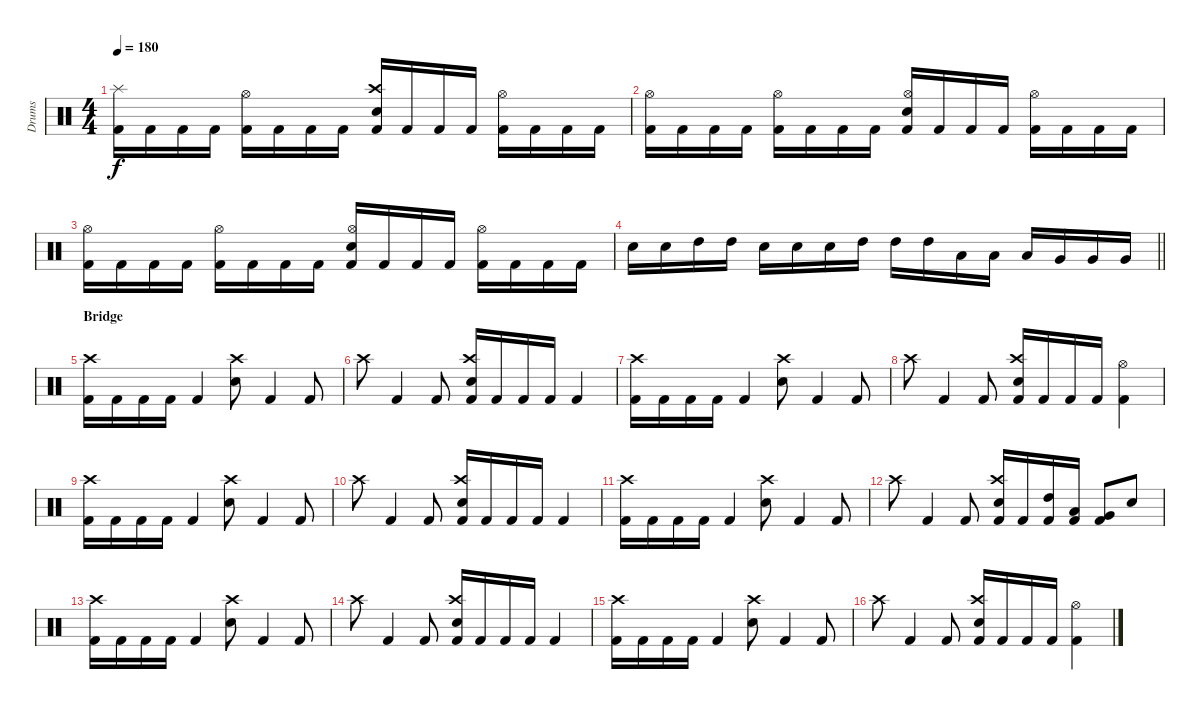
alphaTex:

\track ("Drums" "Drums") {instrument percussion}
\staff {score}
\articulation defaults
\ts (4 4)
\tempo 180
\clef neutral
\ks c
("Splash (hit)" "Kick (hit) 2").16{dy f} "Kick (hit) 2".16 "Kick (hit) 2".16 "Kick (hit) 2".16 ("Hi-Hat (open)" "Kick (hit) 2").16 "Kick (hit) 2".16 "Kick (hit) 2".16 "Kick (hit) 2".16 ("Crash high (hit)" "Snare (hit) 2" "Kick (hit) 2").16 "Kick (hit) 2".16 "Kick (hit) 2".16 "Kick (hit) 2".16 ("Hi-Hat (open)" "Kick (hit) 2").16 "Kick (hit) 2".16 "Kick (hit) 2".16 "Kick (hit) 2".16 |
("Hi-Hat (open)" "Kick (hit) 2").16 "Kick (hit) 2".16 "Kick (hit) 2".16 "Kick (hit) 2".16 ("Hi-Hat (open)" "Kick (hit) 2").16 "Kick (hit) 2".16 "Kick (hit) 2".16 "Kick (hit) 2".16 ("Hi-Hat (open)" "Snare (hit) 2" "Kick (hit) 2").16 "Kick (hit) 2".16 "Kick (hit) 2".16 "Kick (hit) 2".16 ("Hi-Hat (open)" "Kick (hit) 2").16 "Kick (hit) 2".16 "Kick (hit) 2".16 "Kick (hit) 2".16 |
("Hi-Hat (open)" "Kick (hit) 2").16 "Kick (hit) 2".16 "Kick (hit) 2".16 "Kick (hit) 2".16 ("Hi-Hat (open)" "Kick (hit) 2").16 "Kick (hit) 2".16 "Kick (hit) 2".16 "Kick (hit) 2".16 ("Hi-Hat (open)" "Snare (hit) 2" "Kick (hit) 2").16 "Kick (hit) 2".16 "Kick (hit) 2".16 "Kick (hit) 2".16 ("Hi-Hat (open)" "Kick (hit) 2").16 "Kick (hit) 2".16 "Kick (hit) 2".16 "Kick (hit) 2".16 |
\barLineRight lightlight "Snare (hit) 2".16 "Snare (hit) 2".16 "High Tom (hit)".16 "High Tom (hit)".16 "Snare (hit) 2".16 "Snare (hit) 2".16 "Snare (hit) 2".16 "High Tom (hit)".16 "High Tom (hit)".16 "High Tom (hit)".16 "Low Tom (hit)".16 "Low Tom (hit)".16 "Low Tom (hit)".16 "Very Low Tom (hit)".16 "Very Low Tom (hit)".16 "Very Low Tom (hit)".16
|
\section ("" "Bridge")
("Crash high (hit)" "Kick (hit) 2").16 "Kick (hit) 2".16 "Kick (hit) 2".16 "Kick (hit) 2".16 "Kick (hit) 2".4 ("Crash high (hit)" "Snare (hit) 2").8 "Kick (hit) 2".4 "Kick (hit) 2".8 |
"Crash high (hit)".8 "Kick (hit) 2".4 "Kick (hit) 2".8 ("Crash high (hit)" "Snare (hit) 2" "Kick (hit) 2").16 "Kick (hit) 2".16 "Kick (hit) 2".16 "Kick (hit) 2".16 "Kick (hit) 2".4 |
("Crash high (hit)" "Kick (hit) 2").16 "Kick (hit) 2".16 "Kick (hit) 2".16 "Kick (hit) 2".16 "Kick (hit) 2".4 ("Crash high (hit)" "Snare (hit) 2").8 "Kick (hit) 2".4 "Kick (hit) 2".8 |
"Crash high (hit)".8 "Kick (hit) 2".4 "Kick (hit) 2".8 ("Crash high (hit)" "Snare (hit) 2" "Kick (hit) 2").16 "Kick (hit) 2".16 "Kick (hit) 2".16 "Kick (hit) 2".16 ("Hi-Hat (open)" "Kick (hit) 2").4 |
("Crash high (hit)" "Kick (hit) 2").16 "Kick (hit) 2".16 "Kick (hit) 2".16 "Kick (hit) 2".16 "Kick (hit) 2".4 ("Crash high (hit)" "Snare (hit) 2").8 "Kick (hit) 2".4 "Kick (hit) 2".8 |
"Crash high (hit)".8 "Kick (hit) 2".4 "Kick (hit) 2".8 ("Crash high (hit)" "Snare (hit) 2" "Kick (hit) 2").16 "Kick (hit) 2".16 "Kick (hit) 2".16 "Kick (hit) 2".16 "Kick (hit) 2".4 |
("Crash high (hit)" "Kick (hit) 2").16 "Kick (hit) 2".16 "Kick (hit) 2".16 "Kick (hit) 2".16 "Kick (hit) 2".4 ("Crash high (hit)" "Snare (hit) 2").8 "Kick (hit) 2".4 "Kick (hit) 2".8 |
"Crash high (hit)".8 "Kick (hit) 2".4 "Kick (hit) 2".8 ("Crash high (hit)" "Snare (hit) 2" "Kick (hit) 2").16 "Kick (hit) 2".16 ("High Tom (hit)" "Kick (hit) 2").16 ("Low Tom (hit)" "Kick (hit) 2").16 ("Very Low Tom (hit)" "Kick (hit) 2").8 "Snare (hit) 2".8 |
("Crash high (hit)" "Kick (hit) 2").16 "Kick (hit) 2".16 "Kick (hit) 2".16 "Kick (hit) 2".16 "Kick (hit) 2".4 ("Crash high (hit)" "Snare (hit) 2").8 "Kick (hit) 2".4 "Kick (hit) 2".8 |
"Crash high (hit)".8 "Kick (hit) 2".4 "Kick (hit) 2".8 ("Crash high (hit)" "Snare (hit) 2" "Kick (hit) 2").16 "Kick (hit) 2".16 "Kick (hit) 2".16 "Kick (hit) 2".16 "Kick (hit) 2".4 |
("Crash high (hit)" "Kick (hit) 2").16 "Kick (hit) 2".16 "Kick (hit) 2".16 "Kick (hit) 2".16 "Kick (hit) 2".4 ("Crash high (hit)" "Snare (hit) 2").8 "Kick (hit) 2".4 "Kick (hit) 2".8 |
"Crash high (hit)".8 "Kick (hit) 2".4 "Kick (hit) 2".8 ("Crash high (hit)" "Snare (hit) 2" "Kick (hit) 2").16 "Kick (hit) 2".16 "Kick (hit) 2".16 "Kick (hit) 2".16 ("Hi-Hat (open)" "Kick (hit) 2").4
